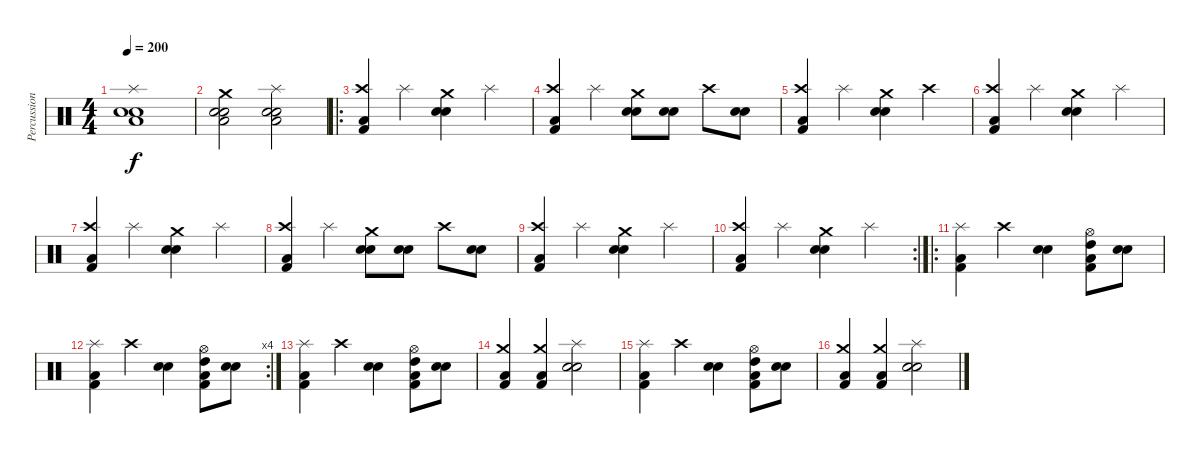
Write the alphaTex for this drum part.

\track ("Percussions" "Percussion") {instrument percussion}
\staff {score}
\articulation defaults
\ts (4 4)
\tempo 200
\clef neutral
\ks c
("Splash (hit)" "Snare (hit) 2" "Electric Snare (hit)" "Low Floor Tom (hit)").1{dy f} |
("Crash medium (hit)" "Snare (hit) 2" "Electric Snare (hit)" "Low Floor Tom (hit)").2 ("Splash (hit)" "Snare (hit) 2" "Electric Snare (hit)" "Low Floor Tom (hit)").2 |
\ro
("Crash high (hit)" "Kick (hit) 2" "Low Floor Tom (hit)").4 "Splash (hit)".4 ("Crash medium (hit)" "Snare (hit) 2" "Electric Snare (hit)").4 "Splash (hit)".4 |
("Crash high (hit)" "Kick (hit) 2" "Low Floor Tom (hit)").4 "Splash (hit)".4 ("Crash medium (hit)" "Snare (hit) 2" "Electric Snare (hit)").8 ("Snare (hit) 2" "Electric Snare (hit)").8 "Crash high (hit)".8 ("Snare (hit) 2" "Electric Snare (hit)").8 |
("Crash high (hit)" "Kick (hit) 2" "Low Floor Tom (hit)").4 "Splash (hit)".4 ("Crash medium (hit)" "Snare (hit) 2" "Electric Snare (hit)").4 "Crash high (hit)".4 |
("Crash high (hit)" "Kick (hit) 2" "Low Floor Tom (hit)").4 "Splash (hit)".4 ("Crash medium (hit)" "Snare (hit) 2" "Electric Snare (hit)").4 "Splash (hit)".4 |
("Crash high (hit)" "Kick (hit) 2" "Low Floor Tom (hit)").4 "Splash (hit)".4 ("Crash medium (hit)" "Snare (hit) 2" "Electric Snare (hit)").4 "Splash (hit)".4 |
("Crash high (hit)" "Kick (hit) 2" "Low Floor Tom (hit)").4 "Splash (hit)".4 ("Crash medium (hit)" "Snare (hit) 2" "Electric Snare (hit)").8 ("Snare (hit) 2" "Electric Snare (hit)").8 "Crash high (hit)".8 ("Snare (hit) 2" "Electric Snare (hit)").8 |
("Crash high (hit)" "Kick (hit) 2" "Low Floor Tom (hit)").4 "Splash (hit)".4 ("Crash medium (hit)" "Snare (hit) 2" "Electric Snare (hit)").4 "Splash (hit)".4 |
\rc 2
("Crash high (hit)" "Kick (hit) 2" "Low Floor Tom (hit)").4 "Splash (hit)".4 ("Crash medium (hit)" "Snare (hit) 2" "Electric Snare (hit)").4 "Splash (hit)".4 |
\ro
("Splash (hit)" "Kick (hit) 2" "Low Floor Tom (hit)").4 "Crash high (hit)".4 ("Snare (hit) 2" "Electric Snare (hit)").4 ("Hi-Hat (open)" "Kick (hit) 2" "Low Floor Tom (hit)" "High Tom (hit)").8 ("Snare (hit) 2" "Electric Snare (hit)").8 |
\rc 4
("Splash (hit)" "Kick (hit) 2" "Low Floor Tom (hit)").4 "Crash high (hit)".4 ("Snare (hit) 2" "Electric Snare (hit)").4 ("Hi-Hat (open)" "Kick (hit) 2" "Low Floor Tom (hit)" "High Tom (hit)").8 ("Snare (hit) 2" "Electric Snare (hit)").8 |
("Splash (hit)" "Kick (hit) 2" "Low Floor Tom (hit)").4 "Crash high (hit)".4 ("Snare (hit) 2" "Electric Snare (hit)").4 ("Hi-Hat (open)" "Kick (hit) 2" "Low Floor Tom (hit)" "High Tom (hit)").8 ("Snare (hit) 2" "Electric Snare (hit)").8 |
("Crash medium (hit)" "Kick (hit) 2" "Low Floor Tom (hit)").4 ("Crash medium (hit)" "Kick (hit) 2" "Low Floor Tom (hit)").4 ("Splash (hit)" "Snare (hit) 2" "Electric Snare (hit)").2 |
("Splash (hit)" "Kick (hit) 2" "Low Floor Tom (hit)").4 "Crash high (hit)".4 ("Snare (hit) 2" "Electric Snare (hit)").4 ("Hi-Hat (open)" "Kick (hit) 2" "Low Floor Tom (hit)" "High Tom (hit)").8 ("Snare (hit) 2" "Electric Snare (hit)").8 |
("Crash medium (hit)" "Kick (hit) 2" "Low Floor Tom (hit)").4 ("Crash medium (hit)" "Kick (hit) 2" "Low Floor Tom (hit)").4 ("Splash (hit)" "Snare (hit) 2" "Electric Snare (hit)").2
